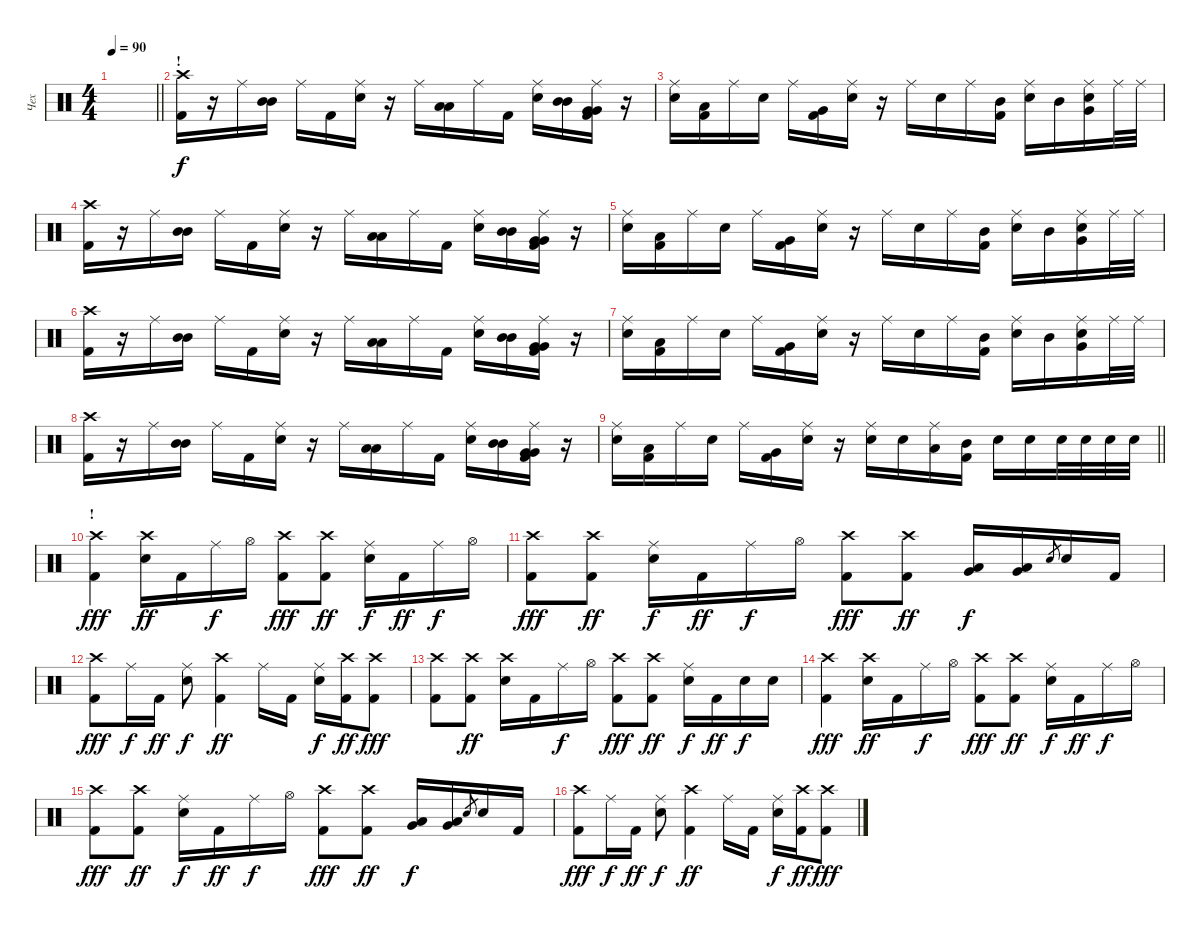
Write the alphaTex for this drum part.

\track ("Чех" "Чех") {instrument percussion}
\staff {score}
\articulation defaults
\ts (4 4)
\tempo 90
\clef neutral
\barLineRight lightlight
\ks c
|
\section ("" "!")
("Crash high (hit)" "Kick (hit) 2").16 r.16 "Ride (middle)".16 ("Mid Tom (hit)" "Mid Tom (hit)").16 "Ride (middle)".16 "Kick (hit) 2".16 ("Ride (middle)" "Electric Snare (hit)").16 r.16 "Ride (middle)".16 ("Low Tom (hit)" "Low Tom (hit)").16 "Ride (middle)".16 "Kick (hit) 2".16 ("Ride (middle)" "Electric Snare (hit)").16 ("Mid Tom (hit)" "Mid Tom (hit)").16 ("Ride (middle)" "Very Low Tom (hit)" "Very Low Tom (hit)" "Kick (hit) 2").16 r.16 |
("Ride (middle)" "Electric Snare (hit)").16 ("Low Tom (hit)" "Kick (hit) 2").16 "Ride (middle)".16 "Electric Snare (hit)".16 "Ride (middle)".16 ("Very Low Tom (hit)" "Kick (hit) 2").16 ("Ride (middle)" "Electric Snare (hit)").16 r.16 "Ride (middle)".16 "Electric Snare (hit)".16 "Ride (middle)".16 ("Mid Tom (hit)" "Kick (hit) 2").16 ("Ride (middle)" "Electric Snare (hit)").16 "Mid Tom (hit)".16 ("Ride (middle)" "Very Low Tom (hit)" "Electric Snare (hit)").16 "Ride (middle)".32 "Ride (middle)".32 |
("Crash high (hit)" "Kick (hit) 2").16 r.16 "Ride (middle)".16 ("Mid Tom (hit)" "Mid Tom (hit)").16 "Ride (middle)".16 "Kick (hit) 2".16 ("Ride (middle)" "Electric Snare (hit)").16 r.16 "Ride (middle)".16 ("Low Tom (hit)" "Low Tom (hit)").16 "Ride (middle)".16 "Kick (hit) 2".16 ("Ride (middle)" "Electric Snare (hit)").16 ("Mid Tom (hit)" "Mid Tom (hit)").16 ("Ride (middle)" "Very Low Tom (hit)" "Very Low Tom (hit)" "Kick (hit) 2").16 r.16 |
("Ride (middle)" "Electric Snare (hit)").16 ("Low Tom (hit)" "Kick (hit) 2").16 "Ride (middle)".16 "Electric Snare (hit)".16 "Ride (middle)".16 ("Very Low Tom (hit)" "Kick (hit) 2").16 ("Ride (middle)" "Electric Snare (hit)").16 r.16 "Ride (middle)".16 "Electric Snare (hit)".16 "Ride (middle)".16 ("Mid Tom (hit)" "Kick (hit) 2").16 ("Ride (middle)" "Electric Snare (hit)").16 "Mid Tom (hit)".16 ("Ride (middle)" "Very Low Tom (hit)" "Electric Snare (hit)").16 "Ride (middle)".32 "Ride (middle)".32 |
("Crash high (hit)" "Kick (hit) 2").16 r.16 "Ride (middle)".16 ("Mid Tom (hit)" "Mid Tom (hit)").16 "Ride (middle)".16 "Kick (hit) 2".16 ("Ride (middle)" "Electric Snare (hit)").16 r.16 "Ride (middle)".16 ("Low Tom (hit)" "Low Tom (hit)").16 "Ride (middle)".16 "Kick (hit) 2".16 ("Ride (middle)" "Electric Snare (hit)").16 ("Mid Tom (hit)" "Mid Tom (hit)").16 ("Ride (middle)" "Very Low Tom (hit)" "Very Low Tom (hit)" "Kick (hit) 2").16 r.16 |
("Ride (middle)" "Electric Snare (hit)").16 ("Low Tom (hit)" "Kick (hit) 2").16 "Ride (middle)".16 "Electric Snare (hit)".16 "Ride (middle)".16 ("Very Low Tom (hit)" "Kick (hit) 2").16 ("Ride (middle)" "Electric Snare (hit)").16 r.16 "Ride (middle)".16 "Electric Snare (hit)".16 "Ride (middle)".16 ("Mid Tom (hit)" "Kick (hit) 2").16 ("Ride (middle)" "Electric Snare (hit)").16 "Mid Tom (hit)".16 ("Ride (middle)" "Very Low Tom (hit)" "Electric Snare (hit)").16 "Ride (middle)".32 "Ride (middle)".32 |
("Crash high (hit)" "Kick (hit) 2").16 r.16 "Ride (middle)".16 ("Mid Tom (hit)" "Mid Tom (hit)").16 "Ride (middle)".16 "Kick (hit) 2".16 ("Ride (middle)" "Electric Snare (hit)").16 r.16 "Ride (middle)".16 ("Low Tom (hit)" "Low Tom (hit)").16 "Ride (middle)".16 "Kick (hit) 2".16 ("Ride (middle)" "Electric Snare (hit)").16 ("Mid Tom (hit)" "Mid Tom (hit)").16 ("Ride (middle)" "Very Low Tom (hit)" "Very Low Tom (hit)" "Kick (hit) 2").16 r.16 |
\barLineRight lightlight
("Ride (middle)" "Electric Snare (hit)").16 ("Low Tom (hit)" "Kick (hit) 2").16 "Ride (middle)".16 "Electric Snare (hit)".16 "Ride (middle)".16 ("Very Low Tom (hit)" "Kick (hit) 2").16 ("Ride (middle)" "Electric Snare (hit)").16 r.16 ("Ride (middle)" "Electric Snare (hit)").16 "Electric Snare (hit)".16 ("Ride (middle)" "Low Tom (hit)").16 ("Mid Tom (hit)" "Kick (hit) 2").16 "Electric Snare (hit)".16 "Electric Snare (hit)".16 "Electric Snare (hit)".32 "Electric Snare (hit)".32 "Electric Snare (hit)".32 "Electric Snare (hit)".32 |
\section ("" "!")
("Crash high (hit)" "Kick (hit) 2").4{dy fff} ("Crash high (hit)" "Electric Snare (hit)").16{dy ff} "Kick (hit) 2".16 "Ride (middle)".16{dy f} "Hi-Hat (open)".16 ("Crash high (hit)" "Kick (hit) 2").8{dy fff} ("Crash high (hit)" "Kick (hit) 2").8{dy ff} ("Ride (middle)" "Electric Snare (hit)").16{dy f} "Kick (hit) 2".16{dy ff} "Ride (middle)".16{dy f} "Hi-Hat (open)".16 |
("Crash high (hit)" "Kick (hit) 2").8{dy fff} ("Crash high (hit)" "Kick (hit) 2").8{dy ff} ("Ride (middle)" "Electric Snare (hit)").16{dy f} "Kick (hit) 2".16{dy ff} "Ride (middle)".16{dy f} "Hi-Hat (open)".16 ("Crash high (hit)" "Kick (hit) 2").8{dy fff} ("Crash high (hit)" "Kick (hit) 2").8{dy ff} ("Low Tom (hit)" "Very Low Tom (hit)").16{dy f} ("Low Tom (hit)" "Very Low Tom (hit)").16 "Electric Snare (hit)".8{gr} "Electric Snare (hit)".16 "Kick (hit) 2".16 |
("Crash high (hit)" "Kick (hit) 2").8{dy fff} "Ride (middle)".16{dy f} "Kick (hit) 2".16{dy ff} ("Ride (middle)" "Electric Snare (hit)").8{dy f} ("Crash high (hit)" "Kick (hit) 2").4{dy ff} "Ride (middle)".16 "Kick (hit) 2".16 ("Ride (middle)" "Electric Snare (hit)").16{dy f} ("Crash high (hit)" "Kick (hit) 2").16{dy ff} ("Crash high (hit)" "Kick (hit) 2").8{dy fff} |
("Crash high (hit)" "Kick (hit) 2").8 ("Crash high (hit)" "Kick (hit) 2").8{dy ff} ("Crash high (hit)" "Electric Snare (hit)").16 "Kick (hit) 2".16 "Ride (middle)".16{dy f} "Hi-Hat (open)".16 ("Crash high (hit)" "Kick (hit) 2").8{dy fff} ("Crash high (hit)" "Kick (hit) 2").8{dy ff} ("Ride (middle)" "Electric Snare (hit)").16{dy f} "Kick (hit) 2".16{dy ff} "Electric Snare (hit)".16{dy f} "Electric Snare (hit)".16 |
("Crash high (hit)" "Kick (hit) 2").4{dy fff} ("Crash high (hit)" "Electric Snare (hit)").16{dy ff} "Kick (hit) 2".16 "Ride (middle)".16{dy f} "Hi-Hat (open)".16 ("Crash high (hit)" "Kick (hit) 2").8{dy fff} ("Crash high (hit)" "Kick (hit) 2").8{dy ff} ("Ride (middle)" "Electric Snare (hit)").16{dy f} "Kick (hit) 2".16{dy ff} "Ride (middle)".16{dy f} "Hi-Hat (open)".16 |
("Crash high (hit)" "Kick (hit) 2").8{dy fff} ("Crash high (hit)" "Kick (hit) 2").8{dy ff} ("Ride (middle)" "Electric Snare (hit)").16{dy f} "Kick (hit) 2".16{dy ff} "Ride (middle)".16{dy f} "Hi-Hat (open)".16 ("Crash high (hit)" "Kick (hit) 2").8{dy fff} ("Crash high (hit)" "Kick (hit) 2").8{dy ff} ("Low Tom (hit)" "Very Low Tom (hit)").16{dy f} ("Low Tom (hit)" "Very Low Tom (hit)").16 "Electric Snare (hit)".8{gr} "Electric Snare (hit)".16 "Kick (hit) 2".16 |
("Crash high (hit)" "Kick (hit) 2").8{dy fff} "Ride (middle)".16{dy f} "Kick (hit) 2".16{dy ff} ("Ride (middle)" "Electric Snare (hit)").8{dy f} ("Crash high (hit)" "Kick (hit) 2").4{dy ff} "Ride (middle)".16 "Kick (hit) 2".16 ("Ride (middle)" "Electric Snare (hit)").16{dy f} ("Crash high (hit)" "Kick (hit) 2").16{dy ff} ("Crash high (hit)" "Kick (hit) 2").8{dy fff}
